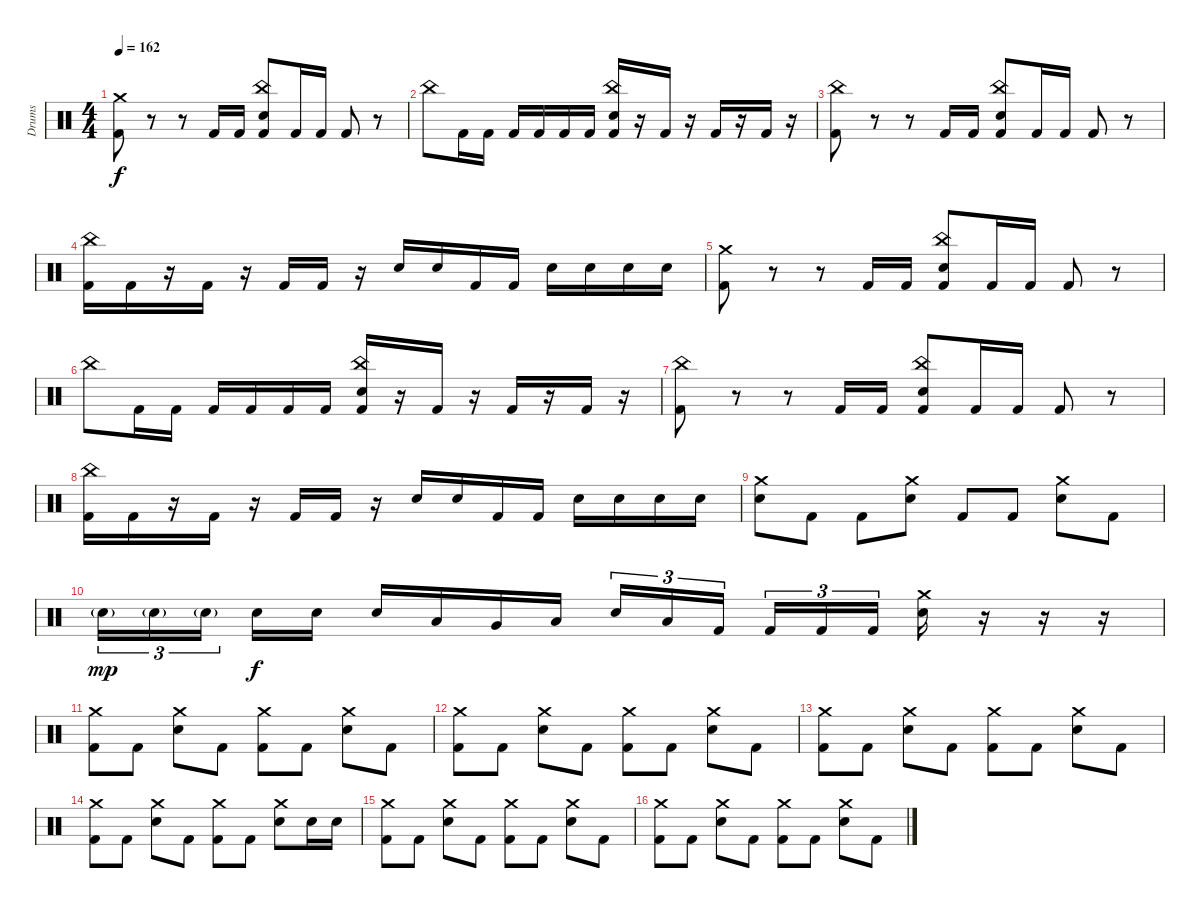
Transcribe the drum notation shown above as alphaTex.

\track ("Drums" "Drums") {instrument percussion}
\staff {score}
\articulation defaults
\ts (4 4)
\tempo 162
\clef neutral
\ks c
("Crash medium (hit)" "Kick (hit) 2").8{dy f} r.8 r.8 "Kick (hit) 2".16 "Kick (hit) 2".16 ("China (hit)" "Electric Snare (hit)" "Kick (hit) 2").8 "Kick (hit) 2".16 "Kick (hit) 2".16 "Kick (hit) 2".8 r.8 |
"China (hit)".8 "Kick (hit) 2".16 "Kick (hit) 2".16 "Kick (hit) 2".16 "Kick (hit) 2".16 "Kick (hit) 2".16 "Kick (hit) 2".16 ("China (hit)" "Electric Snare (hit)" "Kick (hit) 2").16 r.16 "Kick (hit) 2".16 r.16 "Kick (hit) 2".16 r.16 "Kick (hit) 2".16 r.16 |
("China (hit)" "Kick (hit) 2").8 r.8 r.8 "Kick (hit) 2".16 "Kick (hit) 2".16 ("China (hit)" "Electric Snare (hit)" "Kick (hit) 2").8 "Kick (hit) 2".16 "Kick (hit) 2".16 "Kick (hit) 2".8 r.8 |
("China (hit)" "Kick (hit) 2").16 "Kick (hit) 2".16 r.16 "Kick (hit) 2".16 r.16 "Kick (hit) 2".16 "Kick (hit) 2".16 r.16 "Electric Snare (hit)".16 "Electric Snare (hit)".16 "Kick (hit) 2".16 "Kick (hit) 2".16 "Electric Snare (hit)".16 "Electric Snare (hit)".16 "Electric Snare (hit)".16 "Electric Snare (hit)".16 |
("Crash medium (hit)" "Kick (hit) 2").8 r.8 r.8 "Kick (hit) 2".16 "Kick (hit) 2".16 ("China (hit)" "Electric Snare (hit)" "Kick (hit) 2").8 "Kick (hit) 2".16 "Kick (hit) 2".16 "Kick (hit) 2".8 r.8 |
"China (hit)".8 "Kick (hit) 2".16 "Kick (hit) 2".16 "Kick (hit) 2".16 "Kick (hit) 2".16 "Kick (hit) 2".16 "Kick (hit) 2".16 ("China (hit)" "Electric Snare (hit)" "Kick (hit) 2").16 r.16 "Kick (hit) 2".16 r.16 "Kick (hit) 2".16 r.16 "Kick (hit) 2".16 r.16 |
("China (hit)" "Kick (hit) 2").8 r.8 r.8 "Kick (hit) 2".16 "Kick (hit) 2".16 ("China (hit)" "Electric Snare (hit)" "Kick (hit) 2").8 "Kick (hit) 2".16 "Kick (hit) 2".16 "Kick (hit) 2".8 r.8 |
("China (hit)" "Kick (hit) 2").16 "Kick (hit) 2".16 r.16 "Kick (hit) 2".16 r.16 "Kick (hit) 2".16 "Kick (hit) 2".16 r.16 "Electric Snare (hit)".16 "Electric Snare (hit)".16 "Kick (hit) 2".16 "Kick (hit) 2".16 "Electric Snare (hit)".16 "Electric Snare (hit)".16 "Electric Snare (hit)".16 "Electric Snare (hit)".16 |
("Crash medium (hit)" "Electric Snare (hit)").8 "Kick (hit) 2".8 "Kick (hit) 2".8 ("Crash medium (hit)" "Electric Snare (hit)").8 "Kick (hit) 2".8 "Kick (hit) 2".8 ("Crash medium (hit)" "Electric Snare (hit)").8 "Kick (hit) 2".8 |
"Snare (hit) 2"{g}.16{tu (3 2) dy mp} "Snare (hit) 2"{g}.16{tu (3 2)} "Snare (hit) 2"{g}.16{tu (3 2)} "Electric Snare (hit)".16{dy f} "Electric Snare (hit)".16 "Electric Snare (hit)".16 "Low Tom (hit)".16 "Very Low Tom (hit)".16 "Low Floor Tom (hit)".16 "Electric Snare (hit)".16{tu (3 2)} "Low Tom (hit)".16{tu (3 2)} "Kick (hit) 2".16{tu (3 2)} "Kick (hit) 2".16{tu (3 2)} "Kick (hit) 2".16{tu (3 2)} "Kick (hit) 2".16{tu (3 2)} ("Crash medium (hit)" "Electric Snare (hit)").16 r.16 r.16 r.16 |
("Crash medium (hit)" "Kick (hit) 2").8 "Kick (hit) 2".8 ("Crash medium (hit)" "Electric Snare (hit)").8 "Kick (hit) 2".8 ("Crash medium (hit)" "Kick (hit) 2").8 "Kick (hit) 2".8 ("Crash medium (hit)" "Electric Snare (hit)").8 "Kick (hit) 2".8 |
("Crash medium (hit)" "Kick (hit) 2").8 "Kick (hit) 2".8 ("Crash medium (hit)" "Electric Snare (hit)").8 "Kick (hit) 2".8 ("Crash medium (hit)" "Kick (hit) 2").8 "Kick (hit) 2".8 ("Crash medium (hit)" "Electric Snare (hit)").8 "Kick (hit) 2".8 |
("Crash medium (hit)" "Kick (hit) 2").8 "Kick (hit) 2".8 ("Crash medium (hit)" "Electric Snare (hit)").8 "Kick (hit) 2".8 ("Crash medium (hit)" "Kick (hit) 2").8 "Kick (hit) 2".8 ("Crash medium (hit)" "Electric Snare (hit)").8 "Kick (hit) 2".8 |
("Crash medium (hit)" "Kick (hit) 2").8 "Kick (hit) 2".8 ("Crash medium (hit)" "Electric Snare (hit)").8 "Kick (hit) 2".8 ("Crash medium (hit)" "Kick (hit) 2").8 "Kick (hit) 2".8 ("Crash medium (hit)" "Electric Snare (hit)").8 "Electric Snare (hit)".16 "Electric Snare (hit)".16 |
("Crash medium (hit)" "Kick (hit) 2").8 "Kick (hit) 2".8 ("Crash medium (hit)" "Electric Snare (hit)").8 "Kick (hit) 2".8 ("Crash medium (hit)" "Kick (hit) 2").8 "Kick (hit) 2".8 ("Crash medium (hit)" "Electric Snare (hit)").8 "Kick (hit) 2".8 |
("Crash medium (hit)" "Kick (hit) 2").8 "Kick (hit) 2".8 ("Crash medium (hit)" "Electric Snare (hit)").8 "Kick (hit) 2".8 ("Crash medium (hit)" "Kick (hit) 2").8 "Kick (hit) 2".8 ("Crash medium (hit)" "Electric Snare (hit)").8 "Kick (hit) 2".8
